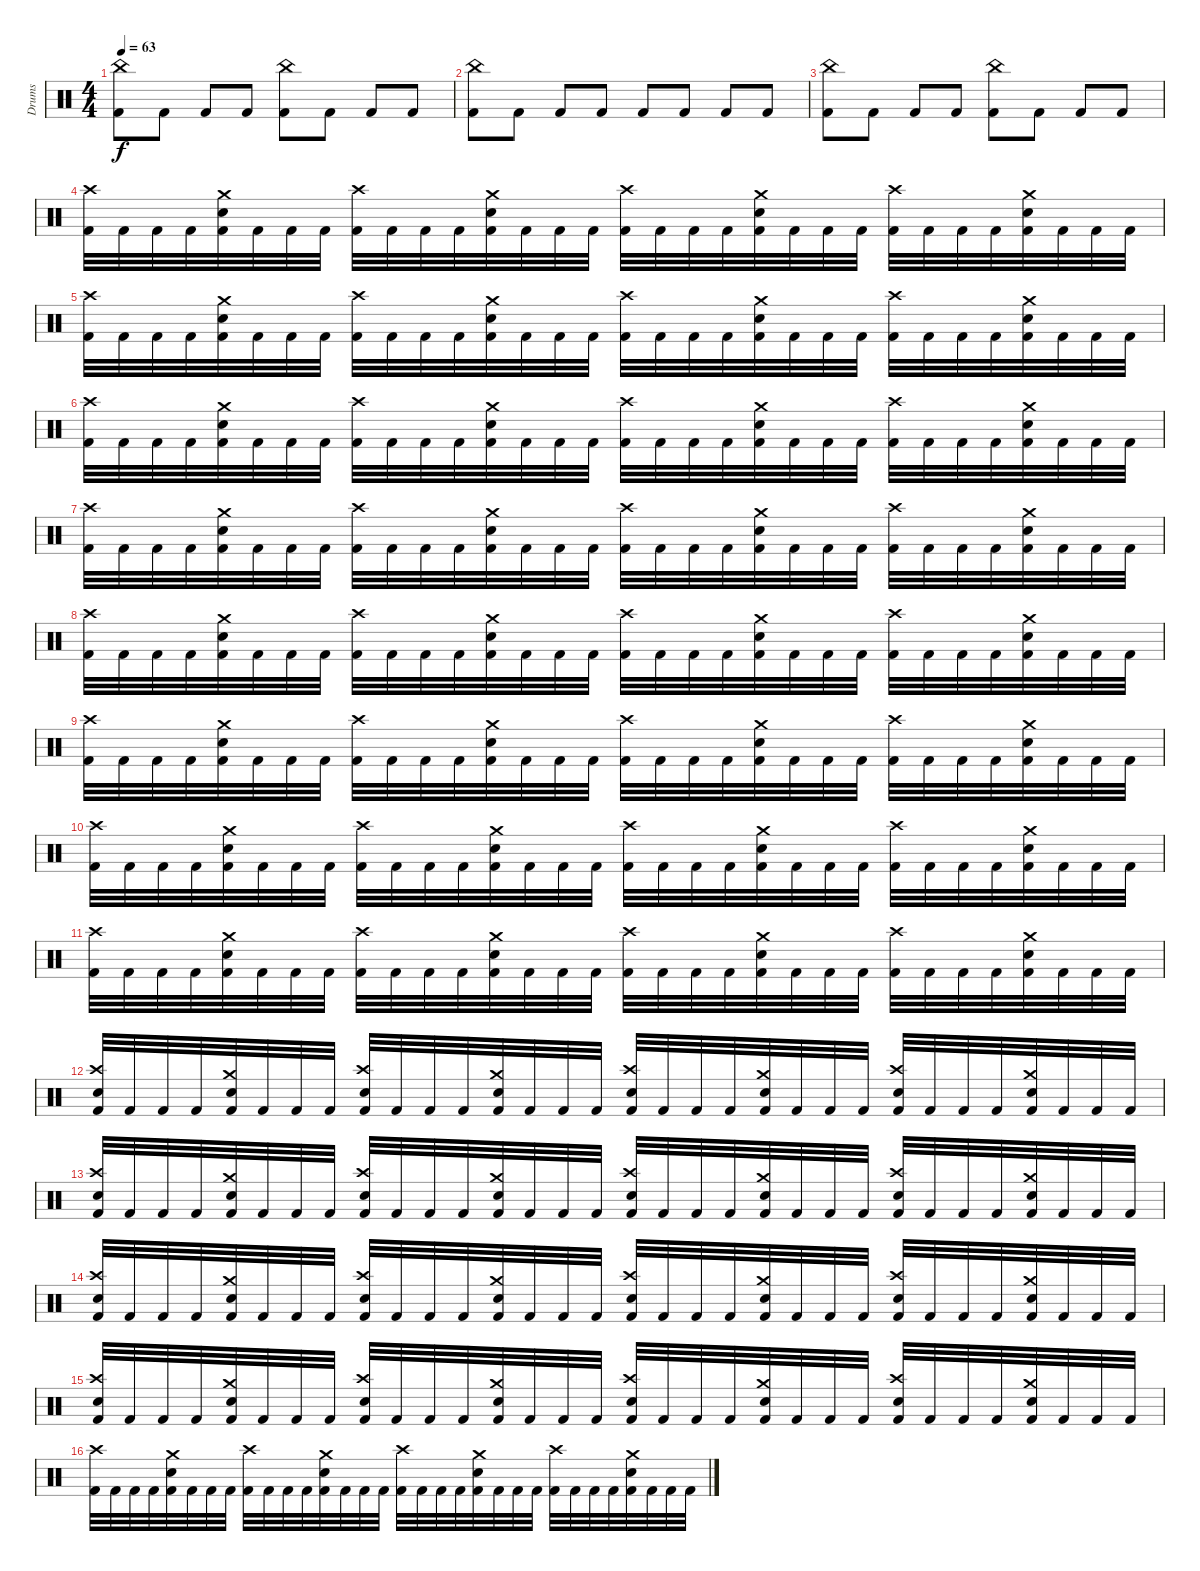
\track ("Drums" "Drums") {instrument percussion}
\staff {score}
\articulation defaults
\ts (4 4)
\tempo 63
\clef neutral
\ks c
("China (hit)" "Kick (hit) 2").8{dy f} "Kick (hit) 2".8 "Kick (hit) 2".8 "Kick (hit) 2".8 ("China (hit)" "Kick (hit) 2").8 "Kick (hit) 2".8 "Kick (hit) 2".8 "Kick (hit) 2".8 |
("China (hit)" "Kick (hit) 2").8 "Kick (hit) 2".8 "Kick (hit) 2".8 "Kick (hit) 2".8 "Kick (hit) 2".8 "Kick (hit) 2".8 "Kick (hit) 2".8 "Kick (hit) 2".8 |
("China (hit)" "Kick (hit) 2").8 "Kick (hit) 2".8 "Kick (hit) 2".8 "Kick (hit) 2".8 ("China (hit)" "Kick (hit) 2").8 "Kick (hit) 2".8 "Kick (hit) 2".8 "Kick (hit) 2".8 |
("Crash high (hit)" "Kick (hit) 2").32 "Kick (hit) 2".32 "Kick (hit) 2".32 "Kick (hit) 2".32 ("Crash medium (hit)" "Electric Snare (hit)" "Kick (hit) 2").32 "Kick (hit) 2".32 "Kick (hit) 2".32 "Kick (hit) 2".32 ("Crash high (hit)" "Kick (hit) 2").32 "Kick (hit) 2".32 "Kick (hit) 2".32 "Kick (hit) 2".32 ("Crash medium (hit)" "Electric Snare (hit)" "Kick (hit) 2").32 "Kick (hit) 2".32 "Kick (hit) 2".32 "Kick (hit) 2".32 ("Crash high (hit)" "Kick (hit) 2").32 "Kick (hit) 2".32 "Kick (hit) 2".32 "Kick (hit) 2".32 ("Crash medium (hit)" "Electric Snare (hit)" "Kick (hit) 2").32 "Kick (hit) 2".32 "Kick (hit) 2".32 "Kick (hit) 2".32 ("Crash high (hit)" "Kick (hit) 2").32 "Kick (hit) 2".32 "Kick (hit) 2".32 "Kick (hit) 2".32 ("Crash medium (hit)" "Electric Snare (hit)" "Kick (hit) 2").32 "Kick (hit) 2".32 "Kick (hit) 2".32 "Kick (hit) 2".32 |
("Crash high (hit)" "Kick (hit) 2").32 "Kick (hit) 2".32 "Kick (hit) 2".32 "Kick (hit) 2".32 ("Crash medium (hit)" "Electric Snare (hit)" "Kick (hit) 2").32 "Kick (hit) 2".32 "Kick (hit) 2".32 "Kick (hit) 2".32 ("Crash high (hit)" "Kick (hit) 2").32 "Kick (hit) 2".32 "Kick (hit) 2".32 "Kick (hit) 2".32 ("Crash medium (hit)" "Electric Snare (hit)" "Kick (hit) 2").32 "Kick (hit) 2".32 "Kick (hit) 2".32 "Kick (hit) 2".32 ("Crash high (hit)" "Kick (hit) 2").32 "Kick (hit) 2".32 "Kick (hit) 2".32 "Kick (hit) 2".32 ("Crash medium (hit)" "Electric Snare (hit)" "Kick (hit) 2").32 "Kick (hit) 2".32 "Kick (hit) 2".32 "Kick (hit) 2".32 ("Crash high (hit)" "Kick (hit) 2").32 "Kick (hit) 2".32 "Kick (hit) 2".32 "Kick (hit) 2".32 ("Crash medium (hit)" "Electric Snare (hit)" "Kick (hit) 2").32 "Kick (hit) 2".32 "Kick (hit) 2".32 "Kick (hit) 2".32 |
("Crash high (hit)" "Kick (hit) 2").32 "Kick (hit) 2".32 "Kick (hit) 2".32 "Kick (hit) 2".32 ("Crash medium (hit)" "Electric Snare (hit)" "Kick (hit) 2").32 "Kick (hit) 2".32 "Kick (hit) 2".32 "Kick (hit) 2".32 ("Crash high (hit)" "Kick (hit) 2").32 "Kick (hit) 2".32 "Kick (hit) 2".32 "Kick (hit) 2".32 ("Crash medium (hit)" "Electric Snare (hit)" "Kick (hit) 2").32 "Kick (hit) 2".32 "Kick (hit) 2".32 "Kick (hit) 2".32 ("Crash high (hit)" "Kick (hit) 2").32 "Kick (hit) 2".32 "Kick (hit) 2".32 "Kick (hit) 2".32 ("Crash medium (hit)" "Electric Snare (hit)" "Kick (hit) 2").32 "Kick (hit) 2".32 "Kick (hit) 2".32 "Kick (hit) 2".32 ("Crash high (hit)" "Kick (hit) 2").32 "Kick (hit) 2".32 "Kick (hit) 2".32 "Kick (hit) 2".32 ("Crash medium (hit)" "Electric Snare (hit)" "Kick (hit) 2").32 "Kick (hit) 2".32 "Kick (hit) 2".32 "Kick (hit) 2".32 |
("Crash high (hit)" "Kick (hit) 2").32 "Kick (hit) 2".32 "Kick (hit) 2".32 "Kick (hit) 2".32 ("Crash medium (hit)" "Electric Snare (hit)" "Kick (hit) 2").32 "Kick (hit) 2".32 "Kick (hit) 2".32 "Kick (hit) 2".32 ("Crash high (hit)" "Kick (hit) 2").32 "Kick (hit) 2".32 "Kick (hit) 2".32 "Kick (hit) 2".32 ("Crash medium (hit)" "Electric Snare (hit)" "Kick (hit) 2").32 "Kick (hit) 2".32 "Kick (hit) 2".32 "Kick (hit) 2".32 ("Crash high (hit)" "Kick (hit) 2").32 "Kick (hit) 2".32 "Kick (hit) 2".32 "Kick (hit) 2".32 ("Crash medium (hit)" "Electric Snare (hit)" "Kick (hit) 2").32 "Kick (hit) 2".32 "Kick (hit) 2".32 "Kick (hit) 2".32 ("Crash high (hit)" "Kick (hit) 2").32 "Kick (hit) 2".32 "Kick (hit) 2".32 "Kick (hit) 2".32 ("Crash medium (hit)" "Electric Snare (hit)" "Kick (hit) 2").32 "Kick (hit) 2".32 "Kick (hit) 2".32 "Kick (hit) 2".32 |
("Crash high (hit)" "Kick (hit) 2").32 "Kick (hit) 2".32 "Kick (hit) 2".32 "Kick (hit) 2".32 ("Crash medium (hit)" "Electric Snare (hit)" "Kick (hit) 2").32 "Kick (hit) 2".32 "Kick (hit) 2".32 "Kick (hit) 2".32 ("Crash high (hit)" "Kick (hit) 2").32 "Kick (hit) 2".32 "Kick (hit) 2".32 "Kick (hit) 2".32 ("Crash medium (hit)" "Electric Snare (hit)" "Kick (hit) 2").32 "Kick (hit) 2".32 "Kick (hit) 2".32 "Kick (hit) 2".32 ("Crash high (hit)" "Kick (hit) 2").32 "Kick (hit) 2".32 "Kick (hit) 2".32 "Kick (hit) 2".32 ("Crash medium (hit)" "Electric Snare (hit)" "Kick (hit) 2").32 "Kick (hit) 2".32 "Kick (hit) 2".32 "Kick (hit) 2".32 ("Crash high (hit)" "Kick (hit) 2").32 "Kick (hit) 2".32 "Kick (hit) 2".32 "Kick (hit) 2".32 ("Crash medium (hit)" "Electric Snare (hit)" "Kick (hit) 2").32 "Kick (hit) 2".32 "Kick (hit) 2".32 "Kick (hit) 2".32 |
("Crash high (hit)" "Kick (hit) 2").32 "Kick (hit) 2".32 "Kick (hit) 2".32 "Kick (hit) 2".32 ("Crash medium (hit)" "Electric Snare (hit)" "Kick (hit) 2").32 "Kick (hit) 2".32 "Kick (hit) 2".32 "Kick (hit) 2".32 ("Crash high (hit)" "Kick (hit) 2").32 "Kick (hit) 2".32 "Kick (hit) 2".32 "Kick (hit) 2".32 ("Crash medium (hit)" "Electric Snare (hit)" "Kick (hit) 2").32 "Kick (hit) 2".32 "Kick (hit) 2".32 "Kick (hit) 2".32 ("Crash high (hit)" "Kick (hit) 2").32 "Kick (hit) 2".32 "Kick (hit) 2".32 "Kick (hit) 2".32 ("Crash medium (hit)" "Electric Snare (hit)" "Kick (hit) 2").32 "Kick (hit) 2".32 "Kick (hit) 2".32 "Kick (hit) 2".32 ("Crash high (hit)" "Kick (hit) 2").32 "Kick (hit) 2".32 "Kick (hit) 2".32 "Kick (hit) 2".32 ("Crash medium (hit)" "Electric Snare (hit)" "Kick (hit) 2").32 "Kick (hit) 2".32 "Kick (hit) 2".32 "Kick (hit) 2".32 |
("Crash high (hit)" "Kick (hit) 2").32 "Kick (hit) 2".32 "Kick (hit) 2".32 "Kick (hit) 2".32 ("Crash medium (hit)" "Electric Snare (hit)" "Kick (hit) 2").32 "Kick (hit) 2".32 "Kick (hit) 2".32 "Kick (hit) 2".32 ("Crash high (hit)" "Kick (hit) 2").32 "Kick (hit) 2".32 "Kick (hit) 2".32 "Kick (hit) 2".32 ("Crash medium (hit)" "Electric Snare (hit)" "Kick (hit) 2").32 "Kick (hit) 2".32 "Kick (hit) 2".32 "Kick (hit) 2".32 ("Crash high (hit)" "Kick (hit) 2").32 "Kick (hit) 2".32 "Kick (hit) 2".32 "Kick (hit) 2".32 ("Crash medium (hit)" "Electric Snare (hit)" "Kick (hit) 2").32 "Kick (hit) 2".32 "Kick (hit) 2".32 "Kick (hit) 2".32 ("Crash high (hit)" "Kick (hit) 2").32 "Kick (hit) 2".32 "Kick (hit) 2".32 "Kick (hit) 2".32 ("Crash medium (hit)" "Electric Snare (hit)" "Kick (hit) 2").32 "Kick (hit) 2".32 "Kick (hit) 2".32 "Kick (hit) 2".32 |
("Crash high (hit)" "Kick (hit) 2").32 "Kick (hit) 2".32 "Kick (hit) 2".32 "Kick (hit) 2".32 ("Crash medium (hit)" "Electric Snare (hit)" "Kick (hit) 2").32 "Kick (hit) 2".32 "Kick (hit) 2".32 "Kick (hit) 2".32 ("Crash high (hit)" "Kick (hit) 2").32 "Kick (hit) 2".32 "Kick (hit) 2".32 "Kick (hit) 2".32 ("Crash medium (hit)" "Electric Snare (hit)" "Kick (hit) 2").32 "Kick (hit) 2".32 "Kick (hit) 2".32 "Kick (hit) 2".32 ("Crash high (hit)" "Kick (hit) 2").32 "Kick (hit) 2".32 "Kick (hit) 2".32 "Kick (hit) 2".32 ("Crash medium (hit)" "Electric Snare (hit)" "Kick (hit) 2").32 "Kick (hit) 2".32 "Kick (hit) 2".32 "Kick (hit) 2".32 ("Crash high (hit)" "Kick (hit) 2").32 "Kick (hit) 2".32 "Kick (hit) 2".32 "Kick (hit) 2".32 ("Crash medium (hit)" "Electric Snare (hit)" "Kick (hit) 2").32 "Kick (hit) 2".32 "Kick (hit) 2".32 "Kick (hit) 2".32 |
("Crash high (hit)" "Electric Snare (hit)" "Kick (hit) 2").32 "Kick (hit) 2".32 "Kick (hit) 2".32 "Kick (hit) 2".32 ("Crash medium (hit)" "Electric Snare (hit)" "Kick (hit) 2").32 "Kick (hit) 2".32 "Kick (hit) 2".32 "Kick (hit) 2".32 ("Crash high (hit)" "Electric Snare (hit)" "Kick (hit) 2").32 "Kick (hit) 2".32 "Kick (hit) 2".32 "Kick (hit) 2".32 ("Crash medium (hit)" "Electric Snare (hit)" "Kick (hit) 2").32 "Kick (hit) 2".32 "Kick (hit) 2".32 "Kick (hit) 2".32 ("Crash high (hit)" "Electric Snare (hit)" "Kick (hit) 2").32 "Kick (hit) 2".32 "Kick (hit) 2".32 "Kick (hit) 2".32 ("Crash medium (hit)" "Electric Snare (hit)" "Kick (hit) 2").32 "Kick (hit) 2".32 "Kick (hit) 2".32 "Kick (hit) 2".32 ("Crash high (hit)" "Electric Snare (hit)" "Kick (hit) 2").32 "Kick (hit) 2".32 "Kick (hit) 2".32 "Kick (hit) 2".32 ("Crash medium (hit)" "Electric Snare (hit)" "Kick (hit) 2").32 "Kick (hit) 2".32 "Kick (hit) 2".32 "Kick (hit) 2".32 |
("Crash high (hit)" "Electric Snare (hit)" "Kick (hit) 2").32 "Kick (hit) 2".32 "Kick (hit) 2".32 "Kick (hit) 2".32 ("Crash medium (hit)" "Electric Snare (hit)" "Kick (hit) 2").32 "Kick (hit) 2".32 "Kick (hit) 2".32 "Kick (hit) 2".32 ("Crash high (hit)" "Electric Snare (hit)" "Kick (hit) 2").32 "Kick (hit) 2".32 "Kick (hit) 2".32 "Kick (hit) 2".32 ("Crash medium (hit)" "Electric Snare (hit)" "Kick (hit) 2").32 "Kick (hit) 2".32 "Kick (hit) 2".32 "Kick (hit) 2".32 ("Crash high (hit)" "Electric Snare (hit)" "Kick (hit) 2").32 "Kick (hit) 2".32 "Kick (hit) 2".32 "Kick (hit) 2".32 ("Crash medium (hit)" "Electric Snare (hit)" "Kick (hit) 2").32 "Kick (hit) 2".32 "Kick (hit) 2".32 "Kick (hit) 2".32 ("Crash high (hit)" "Electric Snare (hit)" "Kick (hit) 2").32 "Kick (hit) 2".32 "Kick (hit) 2".32 "Kick (hit) 2".32 ("Crash medium (hit)" "Electric Snare (hit)" "Kick (hit) 2").32 "Kick (hit) 2".32 "Kick (hit) 2".32 "Kick (hit) 2".32 |
("Crash high (hit)" "Electric Snare (hit)" "Kick (hit) 2").32 "Kick (hit) 2".32 "Kick (hit) 2".32 "Kick (hit) 2".32 ("Crash medium (hit)" "Electric Snare (hit)" "Kick (hit) 2").32 "Kick (hit) 2".32 "Kick (hit) 2".32 "Kick (hit) 2".32 ("Crash high (hit)" "Electric Snare (hit)" "Kick (hit) 2").32 "Kick (hit) 2".32 "Kick (hit) 2".32 "Kick (hit) 2".32 ("Crash medium (hit)" "Electric Snare (hit)" "Kick (hit) 2").32 "Kick (hit) 2".32 "Kick (hit) 2".32 "Kick (hit) 2".32 ("Crash high (hit)" "Electric Snare (hit)" "Kick (hit) 2").32 "Kick (hit) 2".32 "Kick (hit) 2".32 "Kick (hit) 2".32 ("Crash medium (hit)" "Electric Snare (hit)" "Kick (hit) 2").32 "Kick (hit) 2".32 "Kick (hit) 2".32 "Kick (hit) 2".32 ("Crash high (hit)" "Electric Snare (hit)" "Kick (hit) 2").32 "Kick (hit) 2".32 "Kick (hit) 2".32 "Kick (hit) 2".32 ("Crash medium (hit)" "Electric Snare (hit)" "Kick (hit) 2").32 "Kick (hit) 2".32 "Kick (hit) 2".32 "Kick (hit) 2".32 |
("Crash high (hit)" "Electric Snare (hit)" "Kick (hit) 2").32 "Kick (hit) 2".32 "Kick (hit) 2".32 "Kick (hit) 2".32 ("Crash medium (hit)" "Electric Snare (hit)" "Kick (hit) 2").32 "Kick (hit) 2".32 "Kick (hit) 2".32 "Kick (hit) 2".32 ("Crash high (hit)" "Electric Snare (hit)" "Kick (hit) 2").32 "Kick (hit) 2".32 "Kick (hit) 2".32 "Kick (hit) 2".32 ("Crash medium (hit)" "Electric Snare (hit)" "Kick (hit) 2").32 "Kick (hit) 2".32 "Kick (hit) 2".32 "Kick (hit) 2".32 ("Crash high (hit)" "Electric Snare (hit)" "Kick (hit) 2").32 "Kick (hit) 2".32 "Kick (hit) 2".32 "Kick (hit) 2".32 ("Crash medium (hit)" "Electric Snare (hit)" "Kick (hit) 2").32 "Kick (hit) 2".32 "Kick (hit) 2".32 "Kick (hit) 2".32 ("Crash high (hit)" "Electric Snare (hit)" "Kick (hit) 2").32 "Kick (hit) 2".32 "Kick (hit) 2".32 "Kick (hit) 2".32 ("Crash medium (hit)" "Electric Snare (hit)" "Kick (hit) 2").32 "Kick (hit) 2".32 "Kick (hit) 2".32 "Kick (hit) 2".32 |
("Crash high (hit)" "Kick (hit) 2").32 "Kick (hit) 2".32 "Kick (hit) 2".32 "Kick (hit) 2".32 ("Crash medium (hit)" "Electric Snare (hit)" "Kick (hit) 2").32 "Kick (hit) 2".32 "Kick (hit) 2".32 "Kick (hit) 2".32 ("Crash high (hit)" "Kick (hit) 2").32 "Kick (hit) 2".32 "Kick (hit) 2".32 "Kick (hit) 2".32 ("Crash medium (hit)" "Electric Snare (hit)" "Kick (hit) 2").32 "Kick (hit) 2".32 "Kick (hit) 2".32 "Kick (hit) 2".32 ("Crash high (hit)" "Kick (hit) 2").32 "Kick (hit) 2".32 "Kick (hit) 2".32 "Kick (hit) 2".32 ("Crash medium (hit)" "Electric Snare (hit)" "Kick (hit) 2").32 "Kick (hit) 2".32 "Kick (hit) 2".32 "Kick (hit) 2".32 ("Crash high (hit)" "Kick (hit) 2").32 "Kick (hit) 2".32 "Kick (hit) 2".32 "Kick (hit) 2".32 ("Crash medium (hit)" "Electric Snare (hit)" "Kick (hit) 2").32 "Kick (hit) 2".32 "Kick (hit) 2".32 "Kick (hit) 2".32
